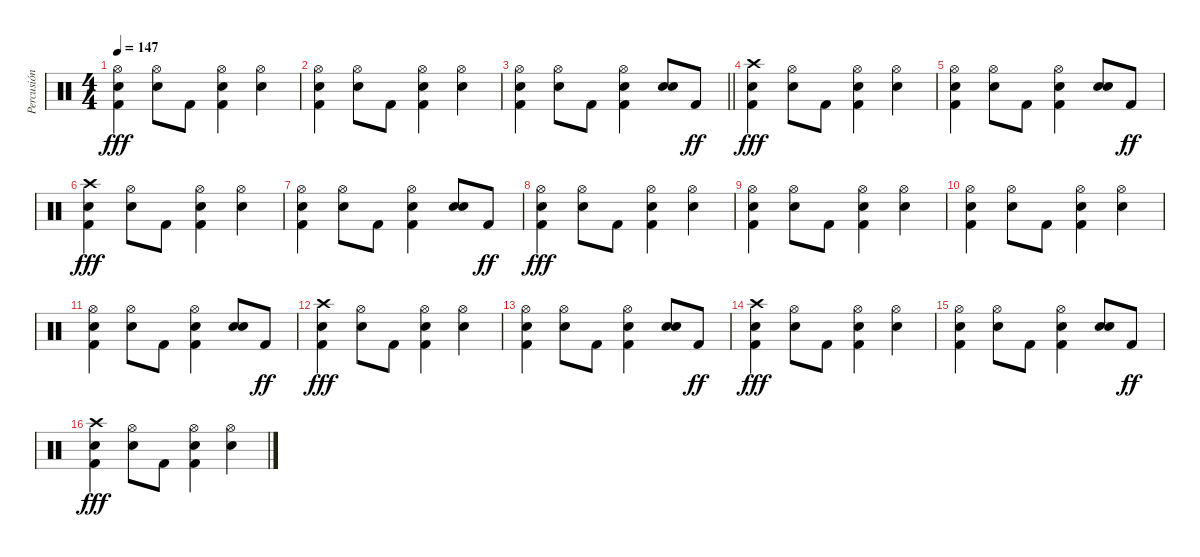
\track ("Percusión" "Percusión") {instrument percussion}
\staff {score}
\articulation defaults
\ts (4 4)
\tempo 147
\clef neutral
\ks c
("Hi-Hat (open)" "Electric Snare (hit)" "Kick (hit) 2").4{dy fff} ("Hi-Hat (open)" "Electric Snare (hit)").8 "Kick (hit) 2".8 ("Hi-Hat (open)" "Electric Snare (hit)" "Kick (hit) 2").4 ("Hi-Hat (open)" "Electric Snare (hit)").4 |
("Hi-Hat (open)" "Electric Snare (hit)" "Kick (hit) 2").4 ("Hi-Hat (open)" "Electric Snare (hit)").8 "Kick (hit) 2".8 ("Hi-Hat (open)" "Electric Snare (hit)" "Kick (hit) 2").4 ("Hi-Hat (open)" "Electric Snare (hit)").4 |
\barLineRight lightlight
("Hi-Hat (open)" "Electric Snare (hit)" "Kick (hit) 2").4 ("Hi-Hat (open)" "Electric Snare (hit)").8 "Kick (hit) 2".8 ("Hi-Hat (open)" "Electric Snare (hit)" "Kick (hit) 2").4 ("Electric Snare (hit)" "Electric Snare (hit)").8{bd 240} "Kick (hit) 2".8{dy ff} |
("Crash high (hit)" "Electric Snare (hit)" "Kick (hit) 2").4{dy fff} ("Hi-Hat (open)" "Electric Snare (hit)").8 "Kick (hit) 2".8 ("Hi-Hat (open)" "Electric Snare (hit)" "Kick (hit) 2").4 ("Hi-Hat (open)" "Electric Snare (hit)").4 |
("Hi-Hat (open)" "Electric Snare (hit)" "Kick (hit) 2").4 ("Hi-Hat (open)" "Electric Snare (hit)").8 "Kick (hit) 2".8 ("Hi-Hat (open)" "Electric Snare (hit)" "Kick (hit) 2").4 ("Electric Snare (hit)" "Electric Snare (hit)").8{bd 240} "Kick (hit) 2".8{dy ff} |
("Crash high (hit)" "Electric Snare (hit)" "Kick (hit) 2").4{dy fff} ("Hi-Hat (open)" "Electric Snare (hit)").8 "Kick (hit) 2".8 ("Hi-Hat (open)" "Electric Snare (hit)" "Kick (hit) 2").4 ("Hi-Hat (open)" "Electric Snare (hit)").4 |
("Hi-Hat (open)" "Electric Snare (hit)" "Kick (hit) 2").4 ("Hi-Hat (open)" "Electric Snare (hit)").8 "Kick (hit) 2".8 ("Hi-Hat (open)" "Electric Snare (hit)" "Kick (hit) 2").4 ("Electric Snare (hit)" "Electric Snare (hit)").8{bd 240} "Kick (hit) 2".8{dy ff} |
("Hi-Hat (open)" "Electric Snare (hit)" "Kick (hit) 2").4{dy fff} ("Hi-Hat (open)" "Electric Snare (hit)").8 "Kick (hit) 2".8 ("Hi-Hat (open)" "Electric Snare (hit)" "Kick (hit) 2").4 ("Hi-Hat (open)" "Electric Snare (hit)").4 |
("Hi-Hat (open)" "Electric Snare (hit)" "Kick (hit) 2").4 ("Hi-Hat (open)" "Electric Snare (hit)").8 "Kick (hit) 2".8 ("Hi-Hat (open)" "Electric Snare (hit)" "Kick (hit) 2").4 ("Hi-Hat (open)" "Electric Snare (hit)").4 |
("Hi-Hat (open)" "Electric Snare (hit)" "Kick (hit) 2").4 ("Hi-Hat (open)" "Electric Snare (hit)").8 "Kick (hit) 2".8 ("Hi-Hat (open)" "Electric Snare (hit)" "Kick (hit) 2").4 ("Hi-Hat (open)" "Electric Snare (hit)").4 |
("Hi-Hat (open)" "Electric Snare (hit)" "Kick (hit) 2").4 ("Hi-Hat (open)" "Electric Snare (hit)").8 "Kick (hit) 2".8 ("Hi-Hat (open)" "Electric Snare (hit)" "Kick (hit) 2").4 ("Electric Snare (hit)" "Electric Snare (hit)").8{bd 240} "Kick (hit) 2".8{dy ff} |
("Crash high (hit)" "Electric Snare (hit)" "Kick (hit) 2").4{dy fff} ("Hi-Hat (open)" "Electric Snare (hit)").8 "Kick (hit) 2".8 ("Hi-Hat (open)" "Electric Snare (hit)" "Kick (hit) 2").4 ("Hi-Hat (open)" "Electric Snare (hit)").4 |
("Hi-Hat (open)" "Electric Snare (hit)" "Kick (hit) 2").4 ("Hi-Hat (open)" "Electric Snare (hit)").8 "Kick (hit) 2".8 ("Hi-Hat (open)" "Electric Snare (hit)" "Kick (hit) 2").4 ("Electric Snare (hit)" "Electric Snare (hit)").8{bd 240} "Kick (hit) 2".8{dy ff} |
("Crash high (hit)" "Electric Snare (hit)" "Kick (hit) 2").4{dy fff} ("Hi-Hat (open)" "Electric Snare (hit)").8 "Kick (hit) 2".8 ("Hi-Hat (open)" "Electric Snare (hit)" "Kick (hit) 2").4 ("Hi-Hat (open)" "Electric Snare (hit)").4 |
("Hi-Hat (open)" "Electric Snare (hit)" "Kick (hit) 2").4 ("Hi-Hat (open)" "Electric Snare (hit)").8 "Kick (hit) 2".8 ("Hi-Hat (open)" "Electric Snare (hit)" "Kick (hit) 2").4 ("Electric Snare (hit)" "Electric Snare (hit)").8{bd 240} "Kick (hit) 2".8{dy ff} |
("Crash high (hit)" "Electric Snare (hit)" "Kick (hit) 2").4{dy fff} ("Hi-Hat (open)" "Electric Snare (hit)").8 "Kick (hit) 2".8 ("Hi-Hat (open)" "Electric Snare (hit)" "Kick (hit) 2").4 ("Hi-Hat (open)" "Electric Snare (hit)").4
